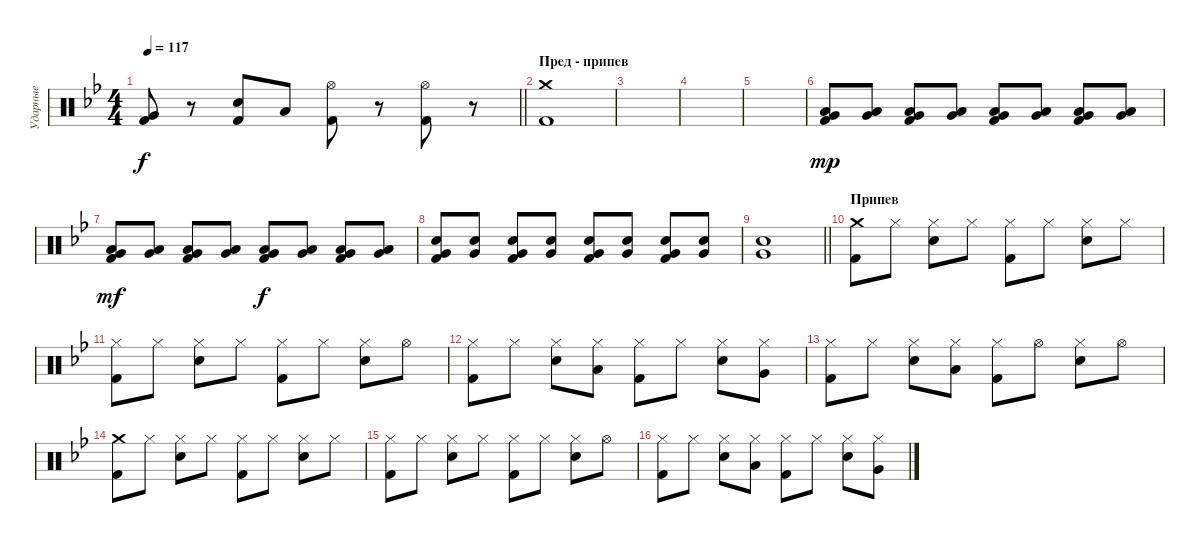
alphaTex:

\track ("Ударные" "Ударные") {instrument percussion}
\staff {score}
\articulation defaults
\ts (4 4)
\tempo 117
\clef neutral
\barLineRight lightlight
\ks gminor
("Very Low Tom (hit)" "Kick (hit) 2").8{dy f} r.8 ("Electric Snare (hit)" "Kick (hit) 2").8 "Low Tom (hit)".8 ("Hi-Hat (open)" "Kick (hit) 2").8 r.8 ("Hi-Hat (open)" "Kick (hit) 2").8 r.8 |
\section ("" "Пред - припев")
("Crash medium (hit)" "Kick (hit) 2").1 |
|
|
|
("Low Tom (hit)" "Very Low Tom (hit)" "Kick (hit) 2").8{dy mp} ("Low Tom (hit)" "Very Low Tom (hit)").8 ("Low Tom (hit)" "Very Low Tom (hit)" "Kick (hit) 2").8 ("Low Tom (hit)" "Very Low Tom (hit)").8 ("Low Tom (hit)" "Very Low Tom (hit)" "Kick (hit) 2").8 ("Low Tom (hit)" "Very Low Tom (hit)").8 ("Low Tom (hit)" "Very Low Tom (hit)" "Kick (hit) 2").8 ("Low Tom (hit)" "Very Low Tom (hit)").8 |
("Low Tom (hit)" "Very Low Tom (hit)" "Kick (hit) 2").8{dy mf} ("Low Tom (hit)" "Very Low Tom (hit)").8 ("Low Tom (hit)" "Very Low Tom (hit)" "Kick (hit) 2").8 ("Low Tom (hit)" "Very Low Tom (hit)").8 ("Low Tom (hit)" "Very Low Tom (hit)" "Kick (hit) 2").8{dy f} ("Low Tom (hit)" "Very Low Tom (hit)").8 ("Low Tom (hit)" "Very Low Tom (hit)" "Kick (hit) 2").8 ("Low Tom (hit)" "Very Low Tom (hit)").8 |
("Electric Snare (hit)" "Very Low Tom (hit)" "Kick (hit) 2").8 ("Electric Snare (hit)" "Very Low Tom (hit)").8 ("Electric Snare (hit)" "Very Low Tom (hit)" "Kick (hit) 2").8 ("Electric Snare (hit)" "Very Low Tom (hit)").8 ("Electric Snare (hit)" "Very Low Tom (hit)" "Kick (hit) 2").8 ("Electric Snare (hit)" "Very Low Tom (hit)").8 ("Electric Snare (hit)" "Very Low Tom (hit)" "Kick (hit) 2").8 ("Electric Snare (hit)" "Very Low Tom (hit)").8 |
\barLineRight lightlight
("Electric Snare (hit)" "Very Low Tom (hit)").1 |
\section ("" "Припев")
("Crash medium (hit)" "Kick (hit) 2").8 "Hi-Hat (closed)".8 ("Hi-Hat (closed)" "Electric Snare (hit)").8 "Hi-Hat (closed)".8 ("Hi-Hat (closed)" "Kick (hit) 2").8 "Hi-Hat (closed)".8 ("Hi-Hat (closed)" "Electric Snare (hit)").8 "Hi-Hat (closed)".8 |
("Hi-Hat (closed)" "Kick (hit) 2").8 "Hi-Hat (closed)".8 ("Hi-Hat (closed)" "Electric Snare (hit)").8 "Hi-Hat (closed)".8 ("Hi-Hat (closed)" "Kick (hit) 2").8 "Hi-Hat (closed)".8 ("Hi-Hat (closed)" "Electric Snare (hit)").8 "Hi-Hat (open)".8 |
("Hi-Hat (closed)" "Kick (hit) 2").8 "Hi-Hat (closed)".8 ("Hi-Hat (closed)" "Electric Snare (hit)").8 ("Hi-Hat (closed)" "Low Tom (hit)").8 ("Hi-Hat (closed)" "Kick (hit) 2").8 "Hi-Hat (closed)".8 ("Hi-Hat (closed)" "Electric Snare (hit)").8 ("Hi-Hat (closed)" "Very Low Tom (hit)").8 |
("Hi-Hat (closed)" "Kick (hit) 2").8 "Hi-Hat (closed)".8 ("Hi-Hat (closed)" "Electric Snare (hit)").8 ("Hi-Hat (closed)" "Low Tom (hit)").8 ("Hi-Hat (closed)" "Kick (hit) 2").8 "Hi-Hat (open)".8 ("Hi-Hat (closed)" "Electric Snare (hit)").8 "Hi-Hat (open)".8 |
("Crash medium (hit)" "Kick (hit) 2").8 "Hi-Hat (closed)".8 ("Hi-Hat (closed)" "Electric Snare (hit)").8 "Hi-Hat (closed)".8 ("Hi-Hat (closed)" "Kick (hit) 2").8 "Hi-Hat (closed)".8 ("Hi-Hat (closed)" "Electric Snare (hit)").8 "Hi-Hat (closed)".8 |
("Hi-Hat (closed)" "Kick (hit) 2").8 "Hi-Hat (closed)".8 ("Hi-Hat (closed)" "Electric Snare (hit)").8 "Hi-Hat (closed)".8 ("Hi-Hat (closed)" "Kick (hit) 2").8 "Hi-Hat (closed)".8 ("Hi-Hat (closed)" "Electric Snare (hit)").8 "Hi-Hat (open)".8 |
("Hi-Hat (closed)" "Kick (hit) 2").8 "Hi-Hat (closed)".8 ("Hi-Hat (closed)" "Electric Snare (hit)").8 ("Hi-Hat (closed)" "Low Tom (hit)").8 ("Hi-Hat (closed)" "Kick (hit) 2").8 "Hi-Hat (closed)".8 ("Hi-Hat (closed)" "Electric Snare (hit)").8 ("Hi-Hat (closed)" "Very Low Tom (hit)").8
